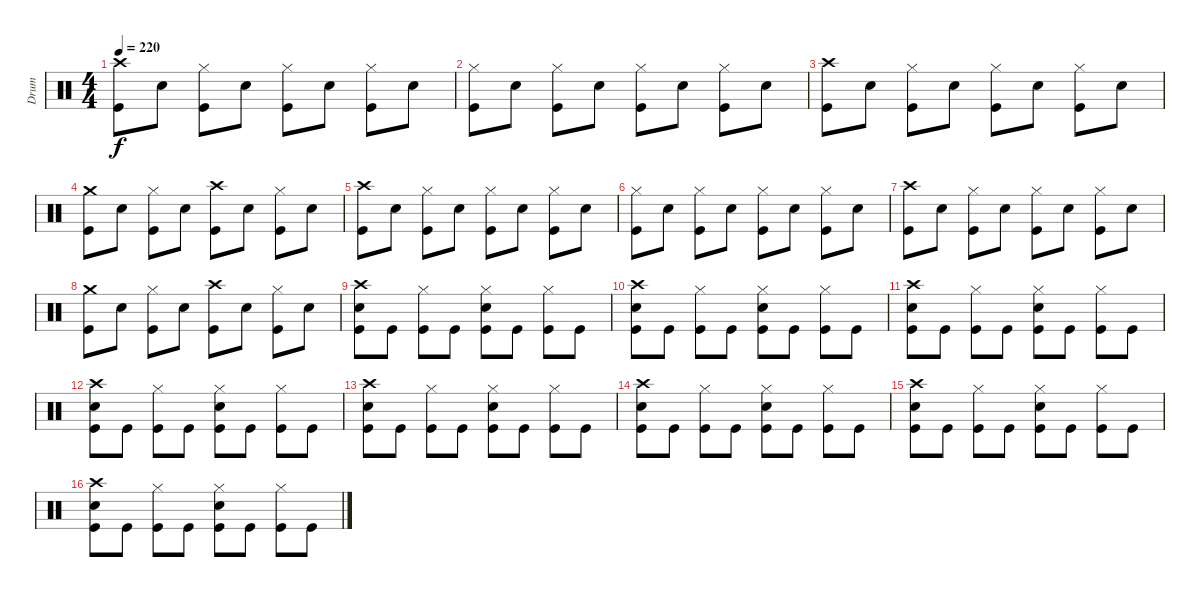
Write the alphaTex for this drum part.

\track ("Drum" "Drum") {instrument percussion}
\staff {score}
\articulation defaults
\ts (4 4)
\tempo 220
\clef neutral
\ks c
("Crash high (hit)" "Kick (hit)").8{dy f} "Snare (hit) 2".8 ("Hi-Hat (closed)" "Kick (hit)").8 "Snare (hit) 2".8 ("Hi-Hat (closed)" "Kick (hit)").8 "Snare (hit) 2".8 ("Hi-Hat (closed)" "Kick (hit)").8 "Snare (hit) 2".8 |
("Hi-Hat (closed)" "Kick (hit)").8 "Snare (hit) 2".8 ("Hi-Hat (closed)" "Kick (hit)").8 "Snare (hit) 2".8 ("Hi-Hat (closed)" "Kick (hit)").8 "Snare (hit) 2".8 ("Hi-Hat (closed)" "Kick (hit)").8 "Snare (hit) 2".8 |
("Crash high (hit)" "Kick (hit)").8 "Snare (hit) 2".8 ("Hi-Hat (closed)" "Kick (hit)").8 "Snare (hit) 2".8 ("Hi-Hat (closed)" "Kick (hit)").8 "Snare (hit) 2".8 ("Hi-Hat (closed)" "Kick (hit)").8 "Snare (hit) 2".8 |
("Crash medium (hit)" "Kick (hit)").8 "Snare (hit) 2".8 ("Hi-Hat (closed)" "Kick (hit)").8 "Snare (hit) 2".8 ("Crash high (hit)" "Kick (hit)").8 "Snare (hit) 2".8 ("Hi-Hat (closed)" "Kick (hit)").8 "Snare (hit) 2".8 |
("Crash high (hit)" "Kick (hit)").8 "Snare (hit) 2".8 ("Hi-Hat (closed)" "Kick (hit)").8 "Snare (hit) 2".8 ("Hi-Hat (closed)" "Kick (hit)").8 "Snare (hit) 2".8 ("Hi-Hat (closed)" "Kick (hit)").8 "Snare (hit) 2".8 |
("Hi-Hat (closed)" "Kick (hit)").8 "Snare (hit) 2".8 ("Hi-Hat (closed)" "Kick (hit)").8 "Snare (hit) 2".8 ("Hi-Hat (closed)" "Kick (hit)").8 "Snare (hit) 2".8 ("Hi-Hat (closed)" "Kick (hit)").8 "Snare (hit) 2".8 |
("Crash high (hit)" "Kick (hit)").8 "Snare (hit) 2".8 ("Hi-Hat (closed)" "Kick (hit)").8 "Snare (hit) 2".8 ("Hi-Hat (closed)" "Kick (hit)").8 "Snare (hit) 2".8 ("Hi-Hat (closed)" "Kick (hit)").8 "Snare (hit) 2".8 |
("Crash medium (hit)" "Kick (hit)").8 "Snare (hit) 2".8 ("Hi-Hat (closed)" "Kick (hit)").8 "Snare (hit) 2".8 ("Crash high (hit)" "Kick (hit)").8 "Snare (hit) 2".8 ("Hi-Hat (closed)" "Kick (hit)").8 "Snare (hit) 2".8 |
("Crash high (hit)" "Snare (hit) 2" "Kick (hit)").8 "Kick (hit)".8 ("Hi-Hat (closed)" "Kick (hit)").8 "Kick (hit)".8 ("Hi-Hat (closed)" "Snare (hit) 2" "Kick (hit)").8 "Kick (hit)".8 ("Hi-Hat (closed)" "Kick (hit)").8 "Kick (hit)".8 |
("Crash high (hit)" "Snare (hit) 2" "Kick (hit)").8 "Kick (hit)".8 ("Hi-Hat (closed)" "Kick (hit)").8 "Kick (hit)".8 ("Hi-Hat (closed)" "Snare (hit) 2" "Kick (hit)").8 "Kick (hit)".8 ("Hi-Hat (closed)" "Kick (hit)").8 "Kick (hit)".8 |
("Crash high (hit)" "Snare (hit) 2" "Kick (hit)").8 "Kick (hit)".8 ("Hi-Hat (closed)" "Kick (hit)").8 "Kick (hit)".8 ("Hi-Hat (closed)" "Snare (hit) 2" "Kick (hit)").8 "Kick (hit)".8 ("Hi-Hat (closed)" "Kick (hit)").8 "Kick (hit)".8 |
("Crash high (hit)" "Snare (hit) 2" "Kick (hit)").8 "Kick (hit)".8 ("Hi-Hat (closed)" "Kick (hit)").8 "Kick (hit)".8 ("Hi-Hat (closed)" "Snare (hit) 2" "Kick (hit)").8 "Kick (hit)".8 ("Hi-Hat (closed)" "Kick (hit)").8 "Kick (hit)".8 |
("Crash high (hit)" "Snare (hit) 2" "Kick (hit)").8 "Kick (hit)".8 ("Hi-Hat (closed)" "Kick (hit)").8 "Kick (hit)".8 ("Hi-Hat (closed)" "Snare (hit) 2" "Kick (hit)").8 "Kick (hit)".8 ("Hi-Hat (closed)" "Kick (hit)").8 "Kick (hit)".8 |
("Crash high (hit)" "Snare (hit) 2" "Kick (hit)").8 "Kick (hit)".8 ("Hi-Hat (closed)" "Kick (hit)").8 "Kick (hit)".8 ("Hi-Hat (closed)" "Snare (hit) 2" "Kick (hit)").8 "Kick (hit)".8 ("Hi-Hat (closed)" "Kick (hit)").8 "Kick (hit)".8 |
("Crash high (hit)" "Snare (hit) 2" "Kick (hit)").8 "Kick (hit)".8 ("Hi-Hat (closed)" "Kick (hit)").8 "Kick (hit)".8 ("Hi-Hat (closed)" "Snare (hit) 2" "Kick (hit)").8 "Kick (hit)".8 ("Hi-Hat (closed)" "Kick (hit)").8 "Kick (hit)".8 |
("Crash high (hit)" "Snare (hit) 2" "Kick (hit)").8 "Kick (hit)".8 ("Hi-Hat (closed)" "Kick (hit)").8 "Kick (hit)".8 ("Hi-Hat (closed)" "Snare (hit) 2" "Kick (hit)").8 "Kick (hit)".8 ("Hi-Hat (closed)" "Kick (hit)").8 "Kick (hit)".8
